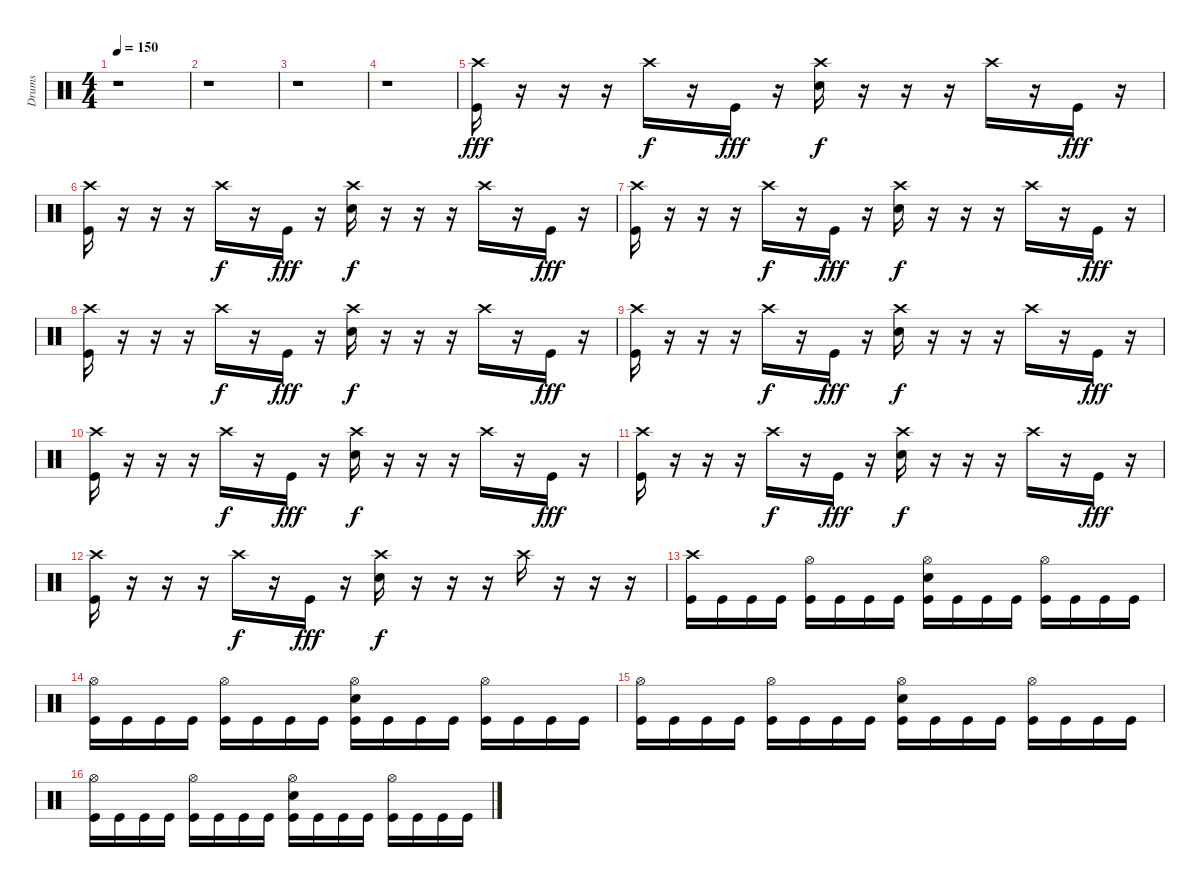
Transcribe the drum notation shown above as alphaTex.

\track ("Drums" "Drums") {instrument percussion}
\staff {score}
\articulation defaults
\ts (4 4)
\tempo 150
\clef neutral
\ks c
r.1{dy fff} |
r.1 |
r.1 |
r.1 |
("Kick (hit)" "Crash high (hit)").16 r.16 r.16 r.16 "Crash high (hit)".16{dy f} r.16 "Kick (hit)".16{dy fff} r.16 ("Electric Snare (hit)" "Crash high (hit)").16{dy f} r.16 r.16 r.16 "Crash high (hit)".16 r.16 "Kick (hit)".16{dy fff} r.16 |
("Kick (hit)" "Crash high (hit)").16 r.16 r.16 r.16 "Crash high (hit)".16{dy f} r.16 "Kick (hit)".16{dy fff} r.16 ("Electric Snare (hit)" "Crash high (hit)").16{dy f} r.16 r.16 r.16 "Crash high (hit)".16 r.16 "Kick (hit)".16{dy fff} r.16 |
("Kick (hit)" "Crash high (hit)").16 r.16 r.16 r.16 "Crash high (hit)".16{dy f} r.16 "Kick (hit)".16{dy fff} r.16 ("Electric Snare (hit)" "Crash high (hit)").16{dy f} r.16 r.16 r.16 "Crash high (hit)".16 r.16 "Kick (hit)".16{dy fff} r.16 |
("Kick (hit)" "Crash high (hit)").16 r.16 r.16 r.16 "Crash high (hit)".16{dy f} r.16 "Kick (hit)".16{dy fff} r.16 ("Electric Snare (hit)" "Crash high (hit)").16{dy f} r.16 r.16 r.16 "Crash high (hit)".16 r.16 "Kick (hit)".16{dy fff} r.16 |
("Kick (hit)" "Crash high (hit)").16 r.16 r.16 r.16 "Crash high (hit)".16{dy f} r.16 "Kick (hit)".16{dy fff} r.16 ("Electric Snare (hit)" "Crash high (hit)").16{dy f} r.16 r.16 r.16 "Crash high (hit)".16 r.16 "Kick (hit)".16{dy fff} r.16 |
("Kick (hit)" "Crash high (hit)").16 r.16 r.16 r.16 "Crash high (hit)".16{dy f} r.16 "Kick (hit)".16{dy fff} r.16 ("Electric Snare (hit)" "Crash high (hit)").16{dy f} r.16 r.16 r.16 "Crash high (hit)".16 r.16 "Kick (hit)".16{dy fff} r.16 |
("Kick (hit)" "Crash high (hit)").16 r.16 r.16 r.16 "Crash high (hit)".16{dy f} r.16 "Kick (hit)".16{dy fff} r.16 ("Electric Snare (hit)" "Crash high (hit)").16{dy f} r.16 r.16 r.16 "Crash high (hit)".16 r.16 "Kick (hit)".16{dy fff} r.16 |
("Kick (hit)" "Crash high (hit)").16 r.16 r.16 r.16 "Crash high (hit)".16{dy f} r.16 "Kick (hit)".16{dy fff} r.16 ("Electric Snare (hit)" "Crash high (hit)").16{dy f} r.16 r.16 r.16 "Crash high (hit)".16 r.16 r.16 r.16 |
("Kick (hit)" "Crash high (hit)").16 "Kick (hit)".16 "Kick (hit)".16 "Kick (hit)".16 ("Kick (hit)" "Hi-Hat (open)").16 "Kick (hit)".16 "Kick (hit)".16 "Kick (hit)".16 ("Electric Snare (hit)" "Kick (hit)" "Hi-Hat (open)").16 "Kick (hit)".16 "Kick (hit)".16 "Kick (hit)".16 ("Kick (hit)" "Hi-Hat (open)").16 "Kick (hit)".16 "Kick (hit)".16 "Kick (hit)".16 |
("Kick (hit)" "Hi-Hat (open)").16 "Kick (hit)".16 "Kick (hit)".16 "Kick (hit)".16 ("Kick (hit)" "Hi-Hat (open)").16 "Kick (hit)".16 "Kick (hit)".16 "Kick (hit)".16 ("Electric Snare (hit)" "Kick (hit)" "Hi-Hat (open)").16 "Kick (hit)".16 "Kick (hit)".16 "Kick (hit)".16 ("Kick (hit)" "Hi-Hat (open)").16 "Kick (hit)".16 "Kick (hit)".16 "Kick (hit)".16 |
("Kick (hit)" "Hi-Hat (open)").16 "Kick (hit)".16 "Kick (hit)".16 "Kick (hit)".16 ("Kick (hit)" "Hi-Hat (open)").16 "Kick (hit)".16 "Kick (hit)".16 "Kick (hit)".16 ("Electric Snare (hit)" "Kick (hit)" "Hi-Hat (open)").16 "Kick (hit)".16 "Kick (hit)".16 "Kick (hit)".16 ("Kick (hit)" "Hi-Hat (open)").16 "Kick (hit)".16 "Kick (hit)".16 "Kick (hit)".16 |
("Kick (hit)" "Hi-Hat (open)").16 "Kick (hit)".16 "Kick (hit)".16 "Kick (hit)".16 ("Kick (hit)" "Hi-Hat (open)").16 "Kick (hit)".16 "Kick (hit)".16 "Kick (hit)".16 ("Electric Snare (hit)" "Kick (hit)" "Hi-Hat (open)").16 "Kick (hit)".16 "Kick (hit)".16 "Kick (hit)".16 ("Kick (hit)" "Hi-Hat (open)").16 "Kick (hit)".16 "Kick (hit)".16 "Kick (hit)".16
